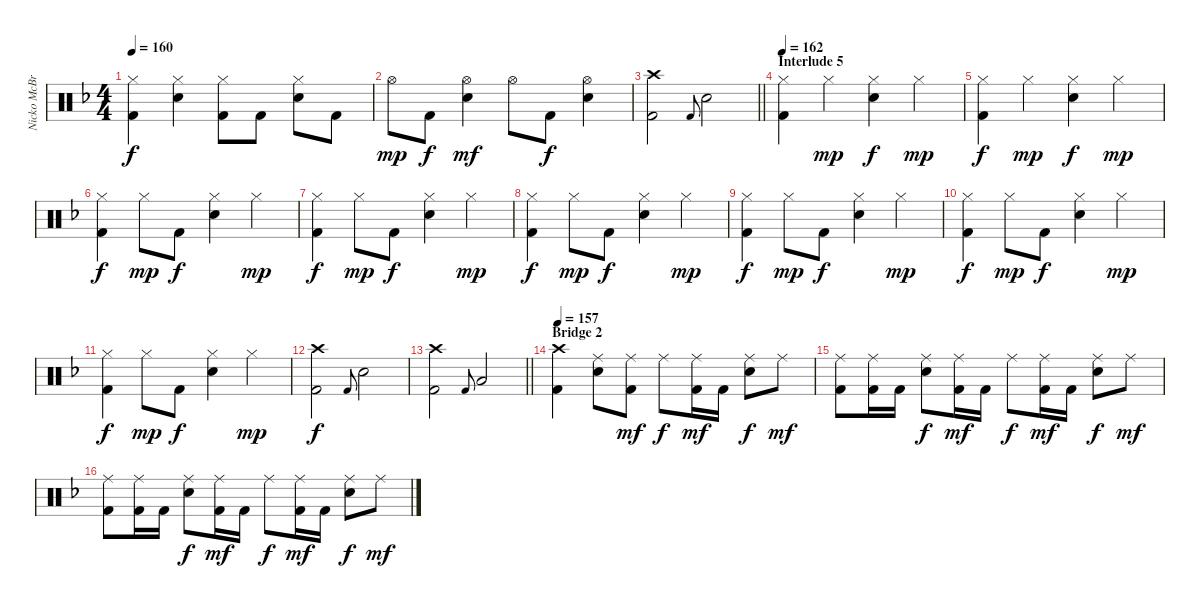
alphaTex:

\track ("Nicko McBrain" "Nicko McBr") {instrument percussion}
\staff {score}
\articulation defaults
\ts (4 4)
\tempo 160
\clef neutral
\ks f
("Hi-Hat (closed)" "Kick (hit) 2").4{dy f} ("Hi-Hat (closed)" "Electric Snare (hit)").4 ("Hi-Hat (closed)" "Kick (hit) 2").8 "Kick (hit) 2".8 ("Hi-Hat (closed)" "Electric Snare (hit)").8 "Kick (hit) 2".8 |
"Hi-Hat (open)".8{dy mp} "Kick (hit) 2".8{dy f} ("Hi-Hat (open)" "Electric Snare (hit)").4{dy mf} "Hi-Hat (open)".8 "Kick (hit) 2".8{dy f} ("Hi-Hat (open)" "Electric Snare (hit)").4 |
\barLineRight lightlight
("Crash high (hit)" "Kick (hit) 2").2 "Kick (hit) 2".8{gr onbeat} "Electric Snare (hit)".2 |
\section ("" "Interlude 5")
\tempo 162
("Hi-Hat (closed)" "Kick (hit) 2").4 "Hi-Hat (closed)".4{dy mp} ("Hi-Hat (closed)" "Electric Snare (hit)").4{dy f} "Hi-Hat (closed)".4{dy mp} |
("Hi-Hat (closed)" "Kick (hit) 2").4{dy f} "Hi-Hat (closed)".4{dy mp} ("Hi-Hat (closed)" "Electric Snare (hit)").4{dy f} "Hi-Hat (closed)".4{dy mp} |
("Hi-Hat (closed)" "Kick (hit) 2").4{dy f} "Hi-Hat (closed)".8{dy mp} "Kick (hit) 2".8{dy f} ("Hi-Hat (closed)" "Electric Snare (hit)").4 "Hi-Hat (closed)".4{dy mp} |
("Hi-Hat (closed)" "Kick (hit) 2").4{dy f} "Hi-Hat (closed)".8{dy mp} "Kick (hit) 2".8{dy f} ("Hi-Hat (closed)" "Electric Snare (hit)").4 "Hi-Hat (closed)".4{dy mp} |
("Hi-Hat (closed)" "Kick (hit) 2").4{dy f} "Hi-Hat (closed)".8{dy mp} "Kick (hit) 2".8{dy f} ("Hi-Hat (closed)" "Electric Snare (hit)").4 "Hi-Hat (closed)".4{dy mp} |
("Hi-Hat (closed)" "Kick (hit) 2").4{dy f} "Hi-Hat (closed)".8{dy mp} "Kick (hit) 2".8{dy f} ("Hi-Hat (closed)" "Electric Snare (hit)").4 "Hi-Hat (closed)".4{dy mp} |
("Hi-Hat (closed)" "Kick (hit) 2").4{dy f} "Hi-Hat (closed)".8{dy mp} "Kick (hit) 2".8{dy f} ("Hi-Hat (closed)" "Electric Snare (hit)").4 "Hi-Hat (closed)".4{dy mp} |
("Hi-Hat (closed)" "Kick (hit) 2").4{dy f} "Hi-Hat (closed)".8{dy mp} "Kick (hit) 2".8{dy f} ("Hi-Hat (closed)" "Electric Snare (hit)").4 "Hi-Hat (closed)".4{dy mp} |
("Crash high (hit)" "Kick (hit) 2").2{dy f} "Kick (hit) 2".8{gr onbeat} "Electric Snare (hit)".2 |
\barLineRight lightlight
("Crash high (hit)" "Kick (hit) 2").2 "Kick (hit) 2".8{gr onbeat} "Low Tom (hit)".2 |
\section ("" "Bridge 2")
\tempo 157
("Crash high (hit)" "Kick (hit) 2").4 ("Ride (middle)" "Electric Snare (hit)").8 ("Ride (middle)" "Kick (hit) 2").8{dy mf} "Ride (middle)".8{dy f} ("Ride (middle)" "Kick (hit) 2").16{dy mf} "Kick (hit) 2".16 ("Ride (middle)" "Electric Snare (hit)").8{dy f} "Ride (middle)".8{dy mf} |
("Ride (middle)" "Kick (hit) 2").8 ("Ride (middle)" "Kick (hit) 2").16 "Kick (hit) 2".16 ("Ride (middle)" "Electric Snare (hit)").8{dy f} ("Ride (middle)" "Kick (hit) 2").16{dy mf} "Kick (hit) 2".16 "Ride (middle)".8{dy f} ("Ride (middle)" "Kick (hit) 2").16{dy mf} "Kick (hit) 2".16 ("Ride (middle)" "Electric Snare (hit)").8{dy f} "Ride (middle)".8{dy mf} |
("Ride (middle)" "Kick (hit) 2").8 ("Ride (middle)" "Kick (hit) 2").16 "Kick (hit) 2".16 ("Ride (middle)" "Electric Snare (hit)").8{dy f} ("Ride (middle)" "Kick (hit) 2").16{dy mf} "Kick (hit) 2".16 "Ride (middle)".8{dy f} ("Ride (middle)" "Kick (hit) 2").16{dy mf} "Kick (hit) 2".16 ("Ride (middle)" "Electric Snare (hit)").8{dy f} "Ride (middle)".8{dy mf}
